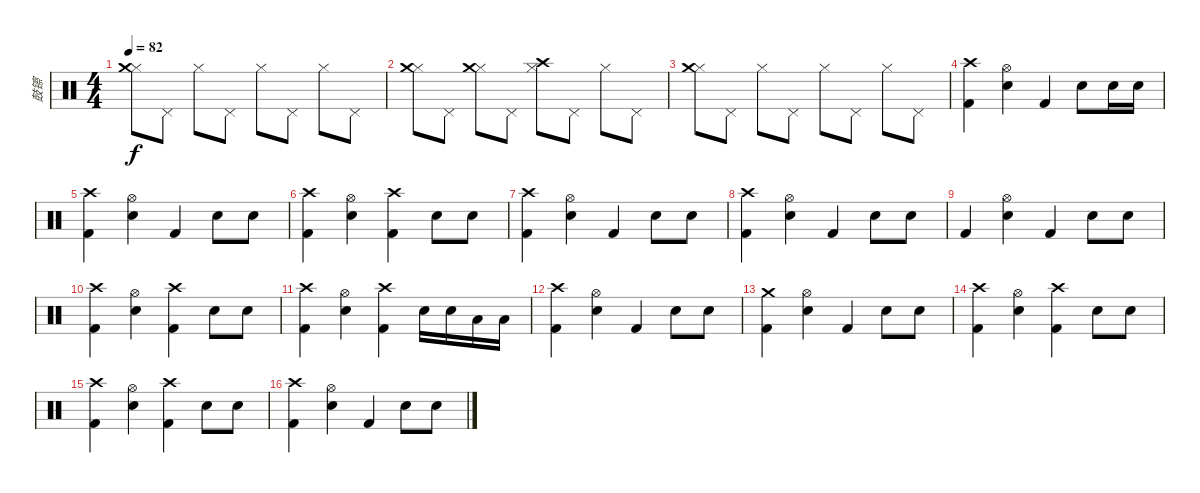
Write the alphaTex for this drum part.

\track ("鼓镲" "鼓镲") {instrument percussion}
\staff {score}
\articulation defaults
\ts (4 4)
\tempo 82
\clef neutral
\ks c
("Hi-Hat (closed)" "Crash medium (hit)").8{dy f} "Pedal Hi-Hat (hit)".8 "Hi-Hat (closed)".8 "Pedal Hi-Hat (hit)".8 "Hi-Hat (closed)".8 "Pedal Hi-Hat (hit)".8 "Hi-Hat (closed)".8 "Pedal Hi-Hat (hit)".8 |
("Hi-Hat (closed)" "Crash medium (hit)").8 "Pedal Hi-Hat (hit)".8 ("Hi-Hat (closed)" "Crash medium (hit)").8 "Pedal Hi-Hat (hit)".8 ("Hi-Hat (closed)" "Crash high (hit)").8 "Pedal Hi-Hat (hit)".8 "Hi-Hat (closed)".8 "Pedal Hi-Hat (hit)".8 |
("Hi-Hat (closed)" "Crash medium (hit)").8 "Pedal Hi-Hat (hit)".8 "Hi-Hat (closed)".8 "Pedal Hi-Hat (hit)".8 "Hi-Hat (closed)".8 "Pedal Hi-Hat (hit)".8 "Hi-Hat (closed)".8 "Pedal Hi-Hat (hit)".8 |
("Crash high (hit)" "Kick (hit) 2").4 ("Hi-Hat (open)" "Electric Snare (hit)").4 "Kick (hit) 2".4 "Electric Snare (hit)".8 "Electric Snare (hit)".16 "Electric Snare (hit)".16 |
("Crash high (hit)" "Kick (hit) 2").4 ("Hi-Hat (open)" "Electric Snare (hit)").4 "Kick (hit) 2".4 "Electric Snare (hit)".8 "Electric Snare (hit)".8 |
("Crash high (hit)" "Kick (hit) 2").4 ("Hi-Hat (open)" "Electric Snare (hit)").4 ("Crash high (hit)" "Kick (hit) 2").4 "Electric Snare (hit)".8 "Electric Snare (hit)".8 |
("Crash high (hit)" "Kick (hit) 2").4 ("Hi-Hat (open)" "Electric Snare (hit)").4 "Kick (hit) 2".4 "Electric Snare (hit)".8 "Electric Snare (hit)".8 |
("Crash high (hit)" "Kick (hit) 2").4 ("Hi-Hat (open)" "Electric Snare (hit)").4 "Kick (hit) 2".4 "Electric Snare (hit)".8 "Electric Snare (hit)".8 |
"Kick (hit) 2".4 ("Hi-Hat (open)" "Electric Snare (hit)").4 "Kick (hit) 2".4 "Electric Snare (hit)".8 "Electric Snare (hit)".8 |
("Crash high (hit)" "Kick (hit) 2").4 ("Hi-Hat (open)" "Electric Snare (hit)").4 ("Crash high (hit)" "Kick (hit) 2").4 "Electric Snare (hit)".8 "Electric Snare (hit)".8 |
("Crash high (hit)" "Kick (hit) 2").4 ("Hi-Hat (open)" "Electric Snare (hit)").4 ("Crash high (hit)" "Kick (hit) 2").4 "Electric Snare (hit)".16 "Electric Snare (hit)".16 "Low Tom (hit)".16 "Low Tom (hit)".16 |
("Crash high (hit)" "Kick (hit) 2").4 ("Hi-Hat (open)" "Electric Snare (hit)").4 "Kick (hit) 2".4 "Electric Snare (hit)".8 "Electric Snare (hit)".8 |
("Crash medium (hit)" "Kick (hit) 2").4 ("Hi-Hat (open)" "Electric Snare (hit)").4 "Kick (hit) 2".4 "Electric Snare (hit)".8 "Electric Snare (hit)".8 |
("Crash high (hit)" "Kick (hit) 2").4 ("Hi-Hat (open)" "Electric Snare (hit)").4 ("Crash high (hit)" "Kick (hit) 2").4 "Electric Snare (hit)".8 "Electric Snare (hit)".8 |
("Crash high (hit)" "Kick (hit) 2").4 ("Hi-Hat (open)" "Electric Snare (hit)").4 ("Crash high (hit)" "Kick (hit) 2").4 "Electric Snare (hit)".8 "Electric Snare (hit)".8 |
("Crash high (hit)" "Kick (hit) 2").4 ("Hi-Hat (open)" "Electric Snare (hit)").4 "Kick (hit) 2".4 "Electric Snare (hit)".8 "Electric Snare (hit)".8
